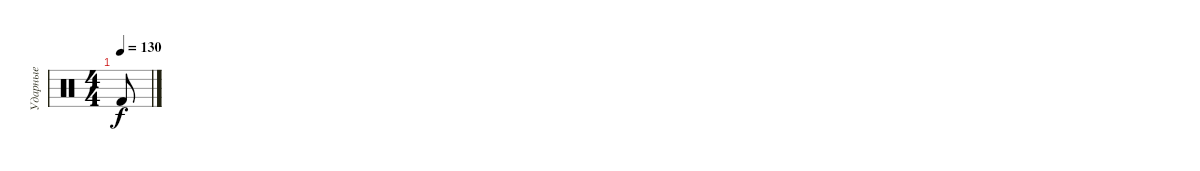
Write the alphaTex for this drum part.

\track ("Ударные" "Ударные") {instrument percussion}
\staff {score}
\articulation defaults
\ts (4 4)
\tempo 130
\clef neutral
\ks c "Kick (hit) 2".8{dy f}
